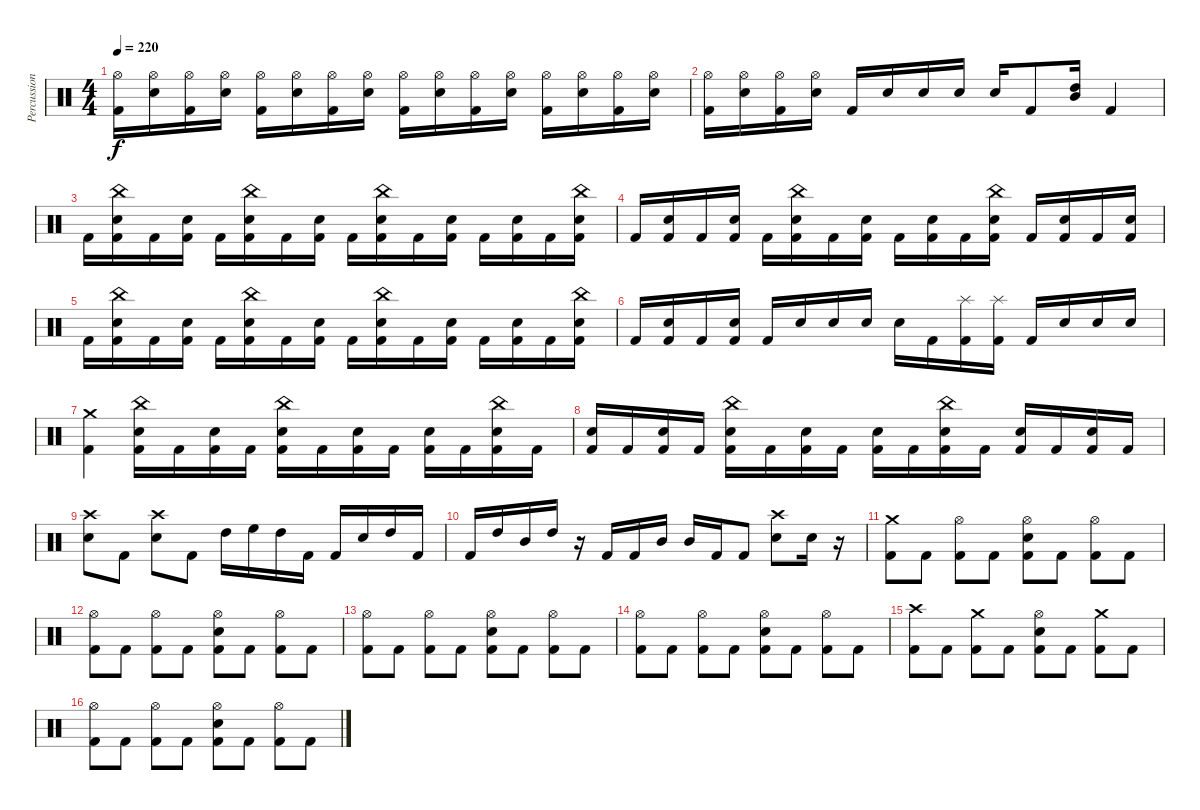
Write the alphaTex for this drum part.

\track ("Percussion (Dan Wilding)" "Percussion") {instrument percussion}
\staff {score}
\articulation defaults
\ts (4 4)
\tempo 220
\clef neutral
\ks c
("Hi-Hat (open)" "Kick (hit) 2").16{dy f} ("Hi-Hat (open)" "Electric Snare (hit)").16 ("Hi-Hat (open)" "Kick (hit) 2").16 ("Hi-Hat (open)" "Electric Snare (hit)").16 ("Hi-Hat (open)" "Kick (hit) 2").16 ("Hi-Hat (open)" "Electric Snare (hit)").16 ("Hi-Hat (open)" "Kick (hit) 2").16 ("Hi-Hat (open)" "Electric Snare (hit)").16 ("Hi-Hat (open)" "Kick (hit) 2").16 ("Hi-Hat (open)" "Electric Snare (hit)").16 ("Hi-Hat (open)" "Kick (hit) 2").16 ("Hi-Hat (open)" "Electric Snare (hit)").16 ("Hi-Hat (open)" "Kick (hit) 2").16 ("Hi-Hat (open)" "Electric Snare (hit)").16 ("Hi-Hat (open)" "Kick (hit) 2").16 ("Hi-Hat (open)" "Electric Snare (hit)").16 |
("Hi-Hat (open)" "Kick (hit) 2").16 ("Hi-Hat (open)" "Electric Snare (hit)").16 ("Hi-Hat (open)" "Kick (hit) 2").16 ("Hi-Hat (open)" "Electric Snare (hit)").16 "Kick (hit) 2".16 "Electric Snare (hit)".16 "Electric Snare (hit)".16 "Electric Snare (hit)".16 "Electric Snare (hit)".16 "Kick (hit) 2".8 ("High Tom (hit)" "Mid Tom (hit)").16 "Kick (hit) 2".4 |
"Kick (hit) 2".16 ("China (hit)" "Electric Snare (hit)" "Kick (hit) 2").16 "Kick (hit) 2".16 ("Electric Snare (hit)" "Kick (hit) 2").16 "Kick (hit) 2".16 ("China (hit)" "Electric Snare (hit)" "Kick (hit) 2").16 "Kick (hit) 2".16 ("Electric Snare (hit)" "Kick (hit) 2").16 "Kick (hit) 2".16 ("China (hit)" "Electric Snare (hit)" "Kick (hit) 2").16 "Kick (hit) 2".16 ("Electric Snare (hit)" "Kick (hit) 2").16 "Kick (hit) 2".16 ("Electric Snare (hit)" "Kick (hit) 2").16 "Kick (hit) 2".16 ("China (hit)" "Electric Snare (hit)" "Kick (hit) 2").16 |
"Kick (hit) 2".16 ("Electric Snare (hit)" "Kick (hit) 2").16 "Kick (hit) 2".16 ("Electric Snare (hit)" "Kick (hit) 2").16 "Kick (hit) 2".16 ("China (hit)" "Electric Snare (hit)" "Kick (hit) 2").16 "Kick (hit) 2".16 ("Electric Snare (hit)" "Kick (hit) 2").16 "Kick (hit) 2".16 ("Electric Snare (hit)" "Kick (hit) 2").16 "Kick (hit) 2".16 ("China (hit)" "Electric Snare (hit)" "Kick (hit) 2").16 "Kick (hit) 2".16 ("Electric Snare (hit)" "Kick (hit) 2").16 "Kick (hit) 2".16 ("Electric Snare (hit)" "Kick (hit) 2").16 |
"Kick (hit) 2".16 ("China (hit)" "Electric Snare (hit)" "Kick (hit) 2").16 "Kick (hit) 2".16 ("Electric Snare (hit)" "Kick (hit) 2").16 "Kick (hit) 2".16 ("China (hit)" "Electric Snare (hit)" "Kick (hit) 2").16 "Kick (hit) 2".16 ("Electric Snare (hit)" "Kick (hit) 2").16 "Kick (hit) 2".16 ("China (hit)" "Electric Snare (hit)" "Kick (hit) 2").16 "Kick (hit) 2".16 ("Electric Snare (hit)" "Kick (hit) 2").16 "Kick (hit) 2".16 ("Electric Snare (hit)" "Kick (hit) 2").16 "Kick (hit) 2".16 ("China (hit)" "Electric Snare (hit)" "Kick (hit) 2").16 |
"Kick (hit) 2".16 ("Electric Snare (hit)" "Kick (hit) 2").16 "Kick (hit) 2".16 ("Electric Snare (hit)" "Kick (hit) 2").16 "Kick (hit) 2".16 "Electric Snare (hit)".16 "Electric Snare (hit)".16 "Electric Snare (hit)".16 "Electric Snare (hit)".16 "Kick (hit) 2".16 ("Splash (hit)" "Kick (hit) 2").16 ("Splash (hit)" "Kick (hit) 2").16 "Kick (hit) 2".16 "Electric Snare (hit)".16 "Electric Snare (hit)".16 "Electric Snare (hit)".16 |
("Crash medium (hit)" "Kick (hit) 2").4 ("China (hit)" "Electric Snare (hit)" "Kick (hit) 2").16 "Kick (hit) 2".16 ("Electric Snare (hit)" "Kick (hit) 2").16 "Kick (hit) 2".16 ("China (hit)" "Electric Snare (hit)" "Kick (hit) 2").16 "Kick (hit) 2".16 ("Electric Snare (hit)" "Kick (hit) 2").16 "Kick (hit) 2".16 ("Electric Snare (hit)" "Kick (hit) 2").16 "Kick (hit) 2".16 ("China (hit)" "Electric Snare (hit)" "Kick (hit) 2").16 "Kick (hit) 2".16 |
("Electric Snare (hit)" "Kick (hit) 2").16 "Kick (hit) 2".16 ("Electric Snare (hit)" "Kick (hit) 2").16 "Kick (hit) 2".16 ("China (hit)" "Electric Snare (hit)" "Kick (hit) 2").16 "Kick (hit) 2".16 ("Electric Snare (hit)" "Kick (hit) 2").16 "Kick (hit) 2".16 ("Electric Snare (hit)" "Kick (hit) 2").16 "Kick (hit) 2".16 ("China (hit)" "Electric Snare (hit)" "Kick (hit) 2").16 "Kick (hit) 2".16 ("Electric Snare (hit)" "Kick (hit) 2").16 "Kick (hit) 2".16 ("Electric Snare (hit)" "Kick (hit) 2").16 "Kick (hit) 2".16 |
("Crash high (hit)" "Electric Snare (hit)").8 "Kick (hit) 2".8 ("Crash high (hit)" "Electric Snare (hit)").8 "Kick (hit) 2".8 "High Tom (hit)".16 "High Floor Tom (hit)".16 "High Tom (hit)".16 "Kick (hit) 2".16 "Kick (hit) 2".16 "Electric Snare (hit)".16 "High Tom (hit)".16 "Kick (hit) 2".16 |
"Kick (hit) 2".16 "High Tom (hit)".16 "Mid Tom (hit)".16 "High Tom (hit)".16 r.16 "Kick (hit) 2".16 "Kick (hit) 2".16 "Mid Tom (hit)".16 "Mid Tom (hit)".16 "Kick (hit) 2".16 "Kick (hit) 2".8 ("Crash high (hit)" "Electric Snare (hit)").8 "Electric Snare (hit)".16 r.16 |
("Crash medium (hit)" "Kick (hit) 2").8 "Kick (hit) 2".8 ("Hi-Hat (open)" "Kick (hit) 2").8 "Kick (hit) 2".8 ("Hi-Hat (open)" "Electric Snare (hit)" "Kick (hit) 2").8 "Kick (hit) 2".8 ("Hi-Hat (open)" "Kick (hit) 2").8 "Kick (hit) 2".8 |
("Hi-Hat (open)" "Kick (hit) 2").8 "Kick (hit) 2".8 ("Hi-Hat (open)" "Kick (hit) 2").8 "Kick (hit) 2".8 ("Hi-Hat (open)" "Electric Snare (hit)" "Kick (hit) 2").8 "Kick (hit) 2".8 ("Hi-Hat (open)" "Kick (hit) 2").8 "Kick (hit) 2".8 |
("Hi-Hat (open)" "Kick (hit) 2").8 "Kick (hit) 2".8 ("Hi-Hat (open)" "Kick (hit) 2").8 "Kick (hit) 2".8 ("Hi-Hat (open)" "Electric Snare (hit)" "Kick (hit) 2").8 "Kick (hit) 2".8 ("Hi-Hat (open)" "Kick (hit) 2").8 "Kick (hit) 2".8 |
("Hi-Hat (open)" "Kick (hit) 2").8 "Kick (hit) 2".8 ("Hi-Hat (open)" "Kick (hit) 2").8 "Kick (hit) 2".8 ("Hi-Hat (open)" "Electric Snare (hit)" "Kick (hit) 2").8 "Kick (hit) 2".8 ("Hi-Hat (open)" "Kick (hit) 2").8 "Kick (hit) 2".8 |
("Crash high (hit)" "Kick (hit) 2").8 "Kick (hit) 2".8 ("Crash medium (hit)" "Kick (hit) 2").8 "Kick (hit) 2".8 ("Hi-Hat (open)" "Electric Snare (hit)" "Kick (hit) 2").8 "Kick (hit) 2".8 ("Crash medium (hit)" "Kick (hit) 2").8 "Kick (hit) 2".8 |
("Hi-Hat (open)" "Kick (hit) 2").8 "Kick (hit) 2".8 ("Hi-Hat (open)" "Kick (hit) 2").8 "Kick (hit) 2".8 ("Hi-Hat (open)" "Electric Snare (hit)" "Kick (hit) 2").8 "Kick (hit) 2".8 ("Hi-Hat (open)" "Kick (hit) 2").8 "Kick (hit) 2".8
